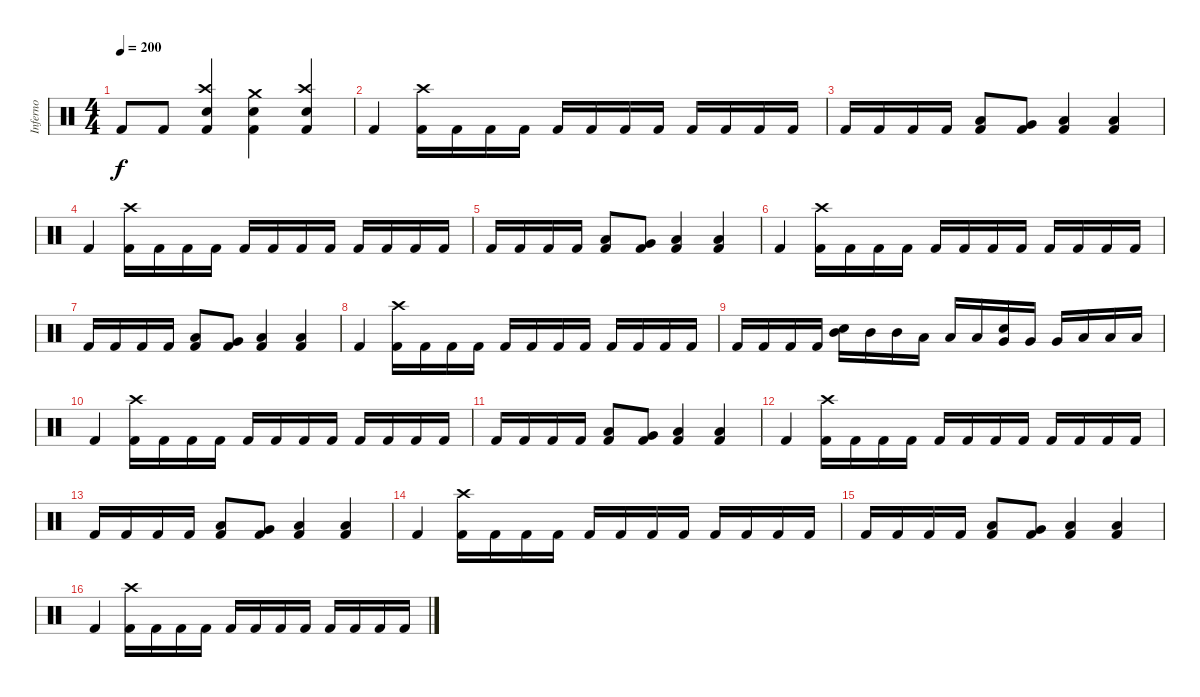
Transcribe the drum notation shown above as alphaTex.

\track ("Inferno" "Inferno") {instrument percussion}
\staff {score}
\articulation defaults
\ts (4 4)
\tempo 200
\clef neutral
\ks c "Kick (hit) 2".8{dy f} "Kick (hit) 2".8
("Crash high (hit)" "Electric Snare (hit)" "Kick (hit) 2").4 ("Crash medium (hit)" "Electric Snare (hit)" "Kick (hit) 2").4 ("Crash high (hit)" "Electric Snare (hit)" "Kick (hit) 2").4 |
"Kick (hit) 2".4 ("Crash high (hit)" "Kick (hit) 2").16 "Kick (hit) 2".16 "Kick (hit) 2".16 "Kick (hit) 2".16 "Kick (hit) 2".16 "Kick (hit) 2".16 "Kick (hit) 2".16 "Kick (hit) 2".16 "Kick (hit) 2".16 "Kick (hit) 2".16 "Kick (hit) 2".16 "Kick (hit) 2".16 |
"Kick (hit) 2".16 "Kick (hit) 2".16 "Kick (hit) 2".16 "Kick (hit) 2".16 ("Low Tom (hit)" "Kick (hit) 2").8 ("Very Low Tom (hit)" "Kick (hit) 2").8 ("Low Floor Tom (hit)" "Kick (hit) 2").4 ("Low Floor Tom (hit)" "Kick (hit) 2").4 |
"Kick (hit) 2".4 ("Crash high (hit)" "Kick (hit) 2").16 "Kick (hit) 2".16 "Kick (hit) 2".16 "Kick (hit) 2".16 "Kick (hit) 2".16 "Kick (hit) 2".16 "Kick (hit) 2".16 "Kick (hit) 2".16 "Kick (hit) 2".16 "Kick (hit) 2".16 "Kick (hit) 2".16 "Kick (hit) 2".16 |
"Kick (hit) 2".16 "Kick (hit) 2".16 "Kick (hit) 2".16 "Kick (hit) 2".16 ("Low Tom (hit)" "Kick (hit) 2").8 ("Very Low Tom (hit)" "Kick (hit) 2").8 ("Low Floor Tom (hit)" "Kick (hit) 2").4 ("Low Floor Tom (hit)" "Kick (hit) 2").4 |
"Kick (hit) 2".4 ("Crash high (hit)" "Kick (hit) 2").16 "Kick (hit) 2".16 "Kick (hit) 2".16 "Kick (hit) 2".16 "Kick (hit) 2".16 "Kick (hit) 2".16 "Kick (hit) 2".16 "Kick (hit) 2".16 "Kick (hit) 2".16 "Kick (hit) 2".16 "Kick (hit) 2".16 "Kick (hit) 2".16 |
"Kick (hit) 2".16 "Kick (hit) 2".16 "Kick (hit) 2".16 "Kick (hit) 2".16 ("Low Tom (hit)" "Kick (hit) 2").8 ("Very Low Tom (hit)" "Kick (hit) 2").8 ("Low Floor Tom (hit)" "Kick (hit) 2").4 ("Low Floor Tom (hit)" "Kick (hit) 2").4 |
"Kick (hit) 2".4 ("Crash high (hit)" "Kick (hit) 2").16 "Kick (hit) 2".16 "Kick (hit) 2".16 "Kick (hit) 2".16 "Kick (hit) 2".16 "Kick (hit) 2".16 "Kick (hit) 2".16 "Kick (hit) 2".16 "Kick (hit) 2".16 "Kick (hit) 2".16 "Kick (hit) 2".16 "Kick (hit) 2".16 |
"Kick (hit) 2".16 "Kick (hit) 2".16 "Kick (hit) 2".16 "Kick (hit) 2".16 ("Mid Tom (hit)" "Electric Snare (hit)").16 "Mid Tom (hit)".16 "Mid Tom (hit)".16 "Low Tom (hit)".16 "Low Tom (hit)".16 "Low Tom (hit)".16 ("Very Low Tom (hit)" "Electric Snare (hit)").16 "Very Low Tom (hit)".16 "Very Low Tom (hit)".16 "Low Floor Tom (hit)".16 "Low Floor Tom (hit)".16 "Low Floor Tom (hit)".16 |
"Kick (hit) 2".4 ("Crash high (hit)" "Kick (hit) 2").16 "Kick (hit) 2".16 "Kick (hit) 2".16 "Kick (hit) 2".16 "Kick (hit) 2".16 "Kick (hit) 2".16 "Kick (hit) 2".16 "Kick (hit) 2".16 "Kick (hit) 2".16 "Kick (hit) 2".16 "Kick (hit) 2".16 "Kick (hit) 2".16 |
"Kick (hit) 2".16 "Kick (hit) 2".16 "Kick (hit) 2".16 "Kick (hit) 2".16 ("Low Tom (hit)" "Kick (hit) 2").8 ("Very Low Tom (hit)" "Kick (hit) 2").8 ("Low Floor Tom (hit)" "Kick (hit) 2").4 ("Low Floor Tom (hit)" "Kick (hit) 2").4 |
"Kick (hit) 2".4 ("Crash high (hit)" "Kick (hit) 2").16 "Kick (hit) 2".16 "Kick (hit) 2".16 "Kick (hit) 2".16 "Kick (hit) 2".16 "Kick (hit) 2".16 "Kick (hit) 2".16 "Kick (hit) 2".16 "Kick (hit) 2".16 "Kick (hit) 2".16 "Kick (hit) 2".16 "Kick (hit) 2".16 |
"Kick (hit) 2".16 "Kick (hit) 2".16 "Kick (hit) 2".16 "Kick (hit) 2".16 ("Low Tom (hit)" "Kick (hit) 2").8 ("Very Low Tom (hit)" "Kick (hit) 2").8 ("Low Floor Tom (hit)" "Kick (hit) 2").4 ("Low Floor Tom (hit)" "Kick (hit) 2").4 |
"Kick (hit) 2".4 ("Crash high (hit)" "Kick (hit) 2").16 "Kick (hit) 2".16 "Kick (hit) 2".16 "Kick (hit) 2".16 "Kick (hit) 2".16 "Kick (hit) 2".16 "Kick (hit) 2".16 "Kick (hit) 2".16 "Kick (hit) 2".16 "Kick (hit) 2".16 "Kick (hit) 2".16 "Kick (hit) 2".16 |
"Kick (hit) 2".16 "Kick (hit) 2".16 "Kick (hit) 2".16 "Kick (hit) 2".16 ("Low Tom (hit)" "Kick (hit) 2").8 ("Very Low Tom (hit)" "Kick (hit) 2").8 ("Low Floor Tom (hit)" "Kick (hit) 2").4 ("Low Floor Tom (hit)" "Kick (hit) 2").4 |
"Kick (hit) 2".4 ("Crash high (hit)" "Kick (hit) 2").16 "Kick (hit) 2".16 "Kick (hit) 2".16 "Kick (hit) 2".16 "Kick (hit) 2".16 "Kick (hit) 2".16 "Kick (hit) 2".16 "Kick (hit) 2".16 "Kick (hit) 2".16 "Kick (hit) 2".16 "Kick (hit) 2".16 "Kick (hit) 2".16
